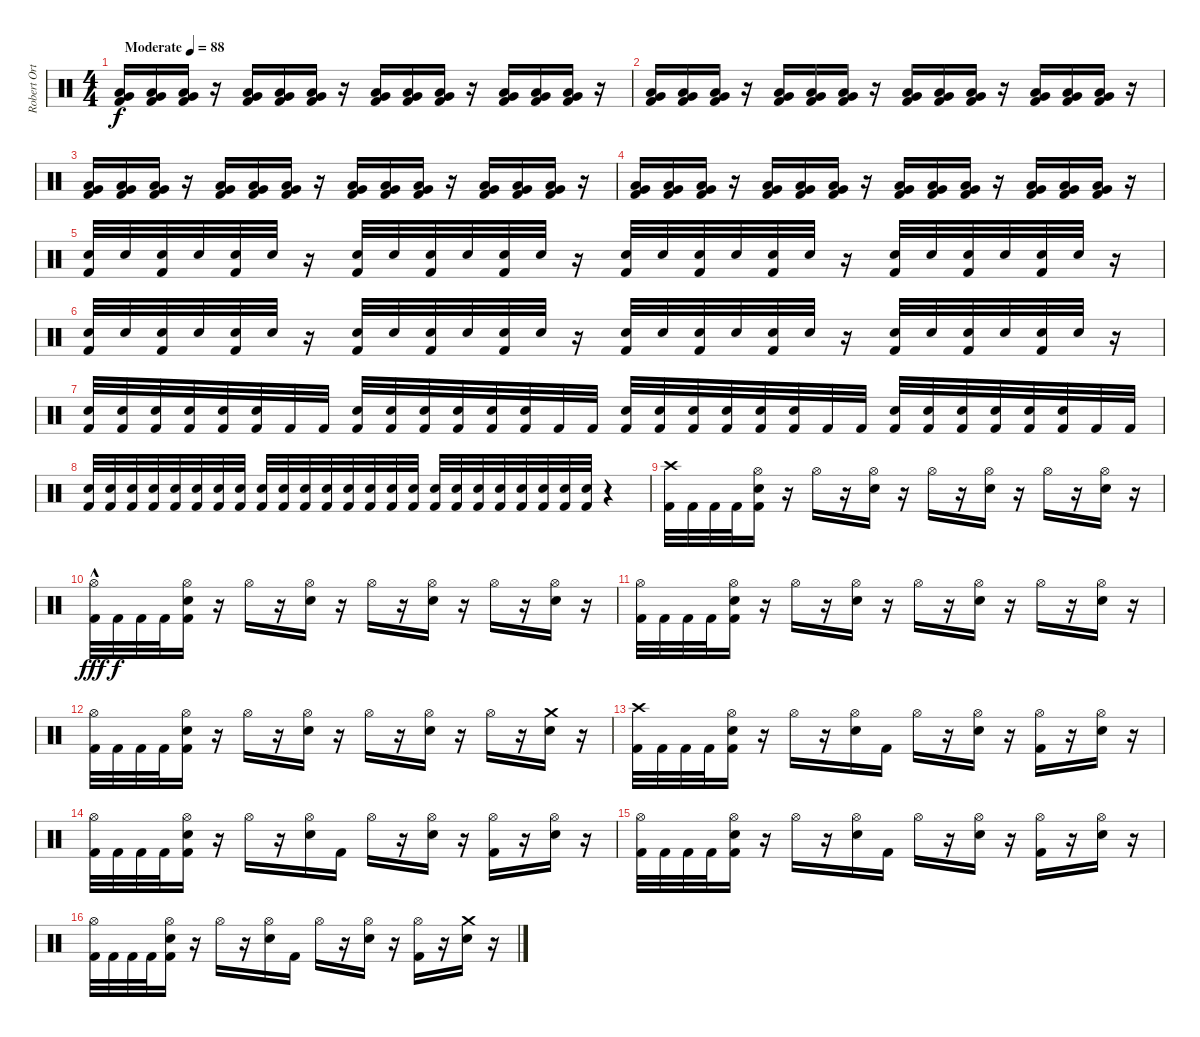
\track ("Robert Ortiz" "Robert Ort") {instrument percussion}
\staff {score}
\articulation defaults
\ts (4 4)
\tempo (88 "Moderate")
\clef neutral
\ks c
("Kick (hit) 2" "Very Low Tom (hit)" "Low Tom (hit)").16{dy f} ("Kick (hit) 2" "Very Low Tom (hit)" "Low Tom (hit)").16 ("Kick (hit) 2" "Very Low Tom (hit)" "Low Tom (hit)").16 r.16 ("Kick (hit) 2" "Very Low Tom (hit)" "Low Tom (hit)").16 ("Kick (hit) 2" "Very Low Tom (hit)" "Low Tom (hit)").16 ("Kick (hit) 2" "Very Low Tom (hit)" "Low Tom (hit)").16 r.16 ("Kick (hit) 2" "Very Low Tom (hit)" "Low Tom (hit)").16 ("Kick (hit) 2" "Very Low Tom (hit)" "Low Tom (hit)").16 ("Kick (hit) 2" "Very Low Tom (hit)" "Low Tom (hit)").16 r.16 ("Kick (hit) 2" "Very Low Tom (hit)" "Low Tom (hit)").16 ("Kick (hit) 2" "Very Low Tom (hit)" "Low Tom (hit)").16 ("Kick (hit) 2" "Very Low Tom (hit)" "Low Tom (hit)").16 r.16 |
("Kick (hit) 2" "Very Low Tom (hit)" "Low Tom (hit)").16 ("Kick (hit) 2" "Very Low Tom (hit)" "Low Tom (hit)").16 ("Kick (hit) 2" "Very Low Tom (hit)" "Low Tom (hit)").16 r.16 ("Kick (hit) 2" "Very Low Tom (hit)" "Low Tom (hit)").16 ("Kick (hit) 2" "Very Low Tom (hit)" "Low Tom (hit)").16 ("Kick (hit) 2" "Very Low Tom (hit)" "Low Tom (hit)").16 r.16 ("Kick (hit) 2" "Very Low Tom (hit)" "Low Tom (hit)").16 ("Kick (hit) 2" "Very Low Tom (hit)" "Low Tom (hit)").16 ("Kick (hit) 2" "Very Low Tom (hit)" "Low Tom (hit)").16 r.16 ("Kick (hit) 2" "Very Low Tom (hit)" "Low Tom (hit)").16 ("Kick (hit) 2" "Very Low Tom (hit)" "Low Tom (hit)").16 ("Kick (hit) 2" "Very Low Tom (hit)" "Low Tom (hit)").16 r.16 |
("Kick (hit) 2" "Very Low Tom (hit)" "Low Tom (hit)").16 ("Kick (hit) 2" "Very Low Tom (hit)" "Low Tom (hit)").16 ("Kick (hit) 2" "Very Low Tom (hit)" "Low Tom (hit)").16 r.16 ("Kick (hit) 2" "Very Low Tom (hit)" "Low Tom (hit)").16 ("Kick (hit) 2" "Very Low Tom (hit)" "Low Tom (hit)").16 ("Kick (hit) 2" "Very Low Tom (hit)" "Low Tom (hit)").16 r.16 ("Kick (hit) 2" "Very Low Tom (hit)" "Low Tom (hit)").16 ("Kick (hit) 2" "Very Low Tom (hit)" "Low Tom (hit)").16 ("Kick (hit) 2" "Very Low Tom (hit)" "Low Tom (hit)").16 r.16 ("Kick (hit) 2" "Very Low Tom (hit)" "Low Tom (hit)").16 ("Kick (hit) 2" "Very Low Tom (hit)" "Low Tom (hit)").16 ("Kick (hit) 2" "Very Low Tom (hit)" "Low Tom (hit)").16 r.16 |
("Kick (hit) 2" "Very Low Tom (hit)" "Low Tom (hit)").16 ("Kick (hit) 2" "Very Low Tom (hit)" "Low Tom (hit)").16 ("Kick (hit) 2" "Very Low Tom (hit)" "Low Tom (hit)").16 r.16 ("Kick (hit) 2" "Very Low Tom (hit)" "Low Tom (hit)").16 ("Kick (hit) 2" "Very Low Tom (hit)" "Low Tom (hit)").16 ("Kick (hit) 2" "Very Low Tom (hit)" "Low Tom (hit)").16 r.16 ("Kick (hit) 2" "Very Low Tom (hit)" "Low Tom (hit)").16 ("Kick (hit) 2" "Very Low Tom (hit)" "Low Tom (hit)").16 ("Kick (hit) 2" "Very Low Tom (hit)" "Low Tom (hit)").16 r.16 ("Kick (hit) 2" "Very Low Tom (hit)" "Low Tom (hit)").16 ("Kick (hit) 2" "Very Low Tom (hit)" "Low Tom (hit)").16 ("Kick (hit) 2" "Very Low Tom (hit)" "Low Tom (hit)").16 r.16 |
("Kick (hit) 2" "Electric Snare (hit)").32 "Electric Snare (hit)".32 ("Kick (hit) 2" "Electric Snare (hit)").32 "Electric Snare (hit)".32 ("Kick (hit) 2" "Electric Snare (hit)").32 "Electric Snare (hit)".32 r.16 ("Kick (hit) 2" "Electric Snare (hit)").32 "Electric Snare (hit)".32 ("Kick (hit) 2" "Electric Snare (hit)").32 "Electric Snare (hit)".32 ("Kick (hit) 2" "Electric Snare (hit)").32 "Electric Snare (hit)".32 r.16 ("Kick (hit) 2" "Electric Snare (hit)").32 "Electric Snare (hit)".32 ("Kick (hit) 2" "Electric Snare (hit)").32 "Electric Snare (hit)".32 ("Kick (hit) 2" "Electric Snare (hit)").32 "Electric Snare (hit)".32 r.16 ("Kick (hit) 2" "Electric Snare (hit)").32 "Electric Snare (hit)".32 ("Kick (hit) 2" "Electric Snare (hit)").32 "Electric Snare (hit)".32 ("Kick (hit) 2" "Electric Snare (hit)").32 "Electric Snare (hit)".32 r.16 |
("Kick (hit) 2" "Electric Snare (hit)").32 "Electric Snare (hit)".32 ("Kick (hit) 2" "Electric Snare (hit)").32 "Electric Snare (hit)".32 ("Kick (hit) 2" "Electric Snare (hit)").32 "Electric Snare (hit)".32 r.16 ("Kick (hit) 2" "Electric Snare (hit)").32 "Electric Snare (hit)".32 ("Kick (hit) 2" "Electric Snare (hit)").32 "Electric Snare (hit)".32 ("Kick (hit) 2" "Electric Snare (hit)").32 "Electric Snare (hit)".32 r.16 ("Kick (hit) 2" "Electric Snare (hit)").32 "Electric Snare (hit)".32 ("Kick (hit) 2" "Electric Snare (hit)").32 "Electric Snare (hit)".32 ("Kick (hit) 2" "Electric Snare (hit)").32 "Electric Snare (hit)".32 r.16 ("Kick (hit) 2" "Electric Snare (hit)").32 "Electric Snare (hit)".32 ("Kick (hit) 2" "Electric Snare (hit)").32 "Electric Snare (hit)".32 ("Kick (hit) 2" "Electric Snare (hit)").32 "Electric Snare (hit)".32 r.16 |
("Kick (hit) 2" "Electric Snare (hit)").32 ("Kick (hit) 2" "Electric Snare (hit)").32 ("Kick (hit) 2" "Electric Snare (hit)").32 ("Kick (hit) 2" "Electric Snare (hit)").32 ("Kick (hit) 2" "Electric Snare (hit)").32 ("Kick (hit) 2" "Electric Snare (hit)").32 "Kick (hit) 2".32 "Kick (hit) 2".32 ("Kick (hit) 2" "Electric Snare (hit)").32 ("Kick (hit) 2" "Electric Snare (hit)").32 ("Kick (hit) 2" "Electric Snare (hit)").32 ("Kick (hit) 2" "Electric Snare (hit)").32 ("Kick (hit) 2" "Electric Snare (hit)").32 ("Kick (hit) 2" "Electric Snare (hit)").32 "Kick (hit) 2".32 "Kick (hit) 2".32 ("Kick (hit) 2" "Electric Snare (hit)").32 ("Kick (hit) 2" "Electric Snare (hit)").32 ("Kick (hit) 2" "Electric Snare (hit)").32 ("Kick (hit) 2" "Electric Snare (hit)").32 ("Kick (hit) 2" "Electric Snare (hit)").32 ("Kick (hit) 2" "Electric Snare (hit)").32 "Kick (hit) 2".32 "Kick (hit) 2".32 ("Kick (hit) 2" "Electric Snare (hit)").32 ("Kick (hit) 2" "Electric Snare (hit)").32 ("Kick (hit) 2" "Electric Snare (hit)").32 ("Kick (hit) 2" "Electric Snare (hit)").32 ("Kick (hit) 2" "Electric Snare (hit)").32 ("Kick (hit) 2" "Electric Snare (hit)").32 "Kick (hit) 2".32 "Kick (hit) 2".32 |
("Kick (hit) 2" "Electric Snare (hit)").32 ("Kick (hit) 2" "Electric Snare (hit)").32 ("Kick (hit) 2" "Electric Snare (hit)").32 ("Kick (hit) 2" "Electric Snare (hit)").32 ("Kick (hit) 2" "Electric Snare (hit)").32 ("Kick (hit) 2" "Electric Snare (hit)").32 ("Kick (hit) 2" "Electric Snare (hit)").32 ("Kick (hit) 2" "Electric Snare (hit)").32 ("Kick (hit) 2" "Electric Snare (hit)").32 ("Kick (hit) 2" "Electric Snare (hit)").32 ("Kick (hit) 2" "Electric Snare (hit)").32 ("Kick (hit) 2" "Electric Snare (hit)").32 ("Kick (hit) 2" "Electric Snare (hit)").32 ("Kick (hit) 2" "Electric Snare (hit)").32 ("Kick (hit) 2" "Electric Snare (hit)").32 ("Kick (hit) 2" "Electric Snare (hit)").32 ("Kick (hit) 2" "Electric Snare (hit)").32 ("Kick (hit) 2" "Electric Snare (hit)").32 ("Kick (hit) 2" "Electric Snare (hit)").32 ("Kick (hit) 2" "Electric Snare (hit)").32 ("Kick (hit) 2" "Electric Snare (hit)").32 ("Kick (hit) 2" "Electric Snare (hit)").32 ("Kick (hit) 2" "Electric Snare (hit)").32 ("Kick (hit) 2" "Electric Snare (hit)").32 r.4 |
("Kick (hit) 2" "Crash high (hit)").32 "Kick (hit) 2".32 "Kick (hit) 2".32 "Kick (hit) 2".32 ("Kick (hit) 2" "Electric Snare (hit)" "Hi-Hat (open)").16 r.16 "Hi-Hat (open)".16 r.16 ("Electric Snare (hit)" "Hi-Hat (open)").16 r.16 "Hi-Hat (open)".16 r.16 ("Electric Snare (hit)" "Hi-Hat (open)").16 r.16 "Hi-Hat (open)".16 r.16 ("Electric Snare (hit)" "Hi-Hat (open)").16 r.16 |
("Kick (hit) 2"{hac} "Hi-Hat (open)").32{dy fff} "Kick (hit) 2".32{dy f} "Kick (hit) 2".32 "Kick (hit) 2".32 ("Kick (hit) 2" "Electric Snare (hit)" "Hi-Hat (open)").16 r.16 "Hi-Hat (open)".16 r.16 ("Electric Snare (hit)" "Hi-Hat (open)").16 r.16 "Hi-Hat (open)".16 r.16 ("Electric Snare (hit)" "Hi-Hat (open)").16 r.16 "Hi-Hat (open)".16 r.16 ("Electric Snare (hit)" "Hi-Hat (open)").16 r.16 |
("Kick (hit) 2" "Hi-Hat (open)").32 "Kick (hit) 2".32 "Kick (hit) 2".32 "Kick (hit) 2".32 ("Kick (hit) 2" "Electric Snare (hit)" "Hi-Hat (open)").16 r.16 "Hi-Hat (open)".16 r.16 ("Electric Snare (hit)" "Hi-Hat (open)").16 r.16 "Hi-Hat (open)".16 r.16 ("Electric Snare (hit)" "Hi-Hat (open)").16 r.16 "Hi-Hat (open)".16 r.16 ("Electric Snare (hit)" "Hi-Hat (open)").16 r.16 |
("Kick (hit) 2" "Hi-Hat (open)").32 "Kick (hit) 2".32 "Kick (hit) 2".32 "Kick (hit) 2".32 ("Kick (hit) 2" "Electric Snare (hit)" "Hi-Hat (open)").16 r.16 "Hi-Hat (open)".16 r.16 ("Electric Snare (hit)" "Hi-Hat (open)").16 r.16 "Hi-Hat (open)".16 r.16 ("Electric Snare (hit)" "Hi-Hat (open)").16 r.16 "Hi-Hat (open)".16 r.16 ("Electric Snare (hit)" "Crash medium (hit)").16 r.16 |
("Kick (hit) 2" "Crash high (hit)").32 "Kick (hit) 2".32 "Kick (hit) 2".32 "Kick (hit) 2".32 ("Kick (hit) 2" "Electric Snare (hit)" "Hi-Hat (open)").16 r.16 "Hi-Hat (open)".16 r.16 ("Electric Snare (hit)" "Hi-Hat (open)").16 "Kick (hit) 2".16 "Hi-Hat (open)".16 r.16 ("Electric Snare (hit)" "Hi-Hat (open)").16 r.16 ("Kick (hit) 2" "Hi-Hat (open)").16 r.16 ("Electric Snare (hit)" "Hi-Hat (open)").16 r.16 |
("Kick (hit) 2" "Hi-Hat (open)").32 "Kick (hit) 2".32 "Kick (hit) 2".32 "Kick (hit) 2".32 ("Kick (hit) 2" "Electric Snare (hit)" "Hi-Hat (open)").16 r.16 "Hi-Hat (open)".16 r.16 ("Electric Snare (hit)" "Hi-Hat (open)").16 "Kick (hit) 2".16 "Hi-Hat (open)".16 r.16 ("Electric Snare (hit)" "Hi-Hat (open)").16 r.16 ("Kick (hit) 2" "Hi-Hat (open)").16 r.16 ("Electric Snare (hit)" "Hi-Hat (open)").16 r.16 |
("Kick (hit) 2" "Hi-Hat (open)").32 "Kick (hit) 2".32 "Kick (hit) 2".32 "Kick (hit) 2".32 ("Kick (hit) 2" "Electric Snare (hit)" "Hi-Hat (open)").16 r.16 "Hi-Hat (open)".16 r.16 ("Electric Snare (hit)" "Hi-Hat (open)").16 "Kick (hit) 2".16 "Hi-Hat (open)".16 r.16 ("Electric Snare (hit)" "Hi-Hat (open)").16 r.16 ("Kick (hit) 2" "Hi-Hat (open)").16 r.16 ("Electric Snare (hit)" "Hi-Hat (open)").16 r.16 |
("Kick (hit) 2" "Hi-Hat (open)").32 "Kick (hit) 2".32 "Kick (hit) 2".32 "Kick (hit) 2".32 ("Kick (hit) 2" "Electric Snare (hit)" "Hi-Hat (open)").16 r.16 "Hi-Hat (open)".16 r.16 ("Electric Snare (hit)" "Hi-Hat (open)").16 "Kick (hit) 2".16 "Hi-Hat (open)".16 r.16 ("Electric Snare (hit)" "Hi-Hat (open)").16 r.16 ("Kick (hit) 2" "Hi-Hat (open)").16 r.16 ("Electric Snare (hit)" "Crash medium (hit)").16 r.16
